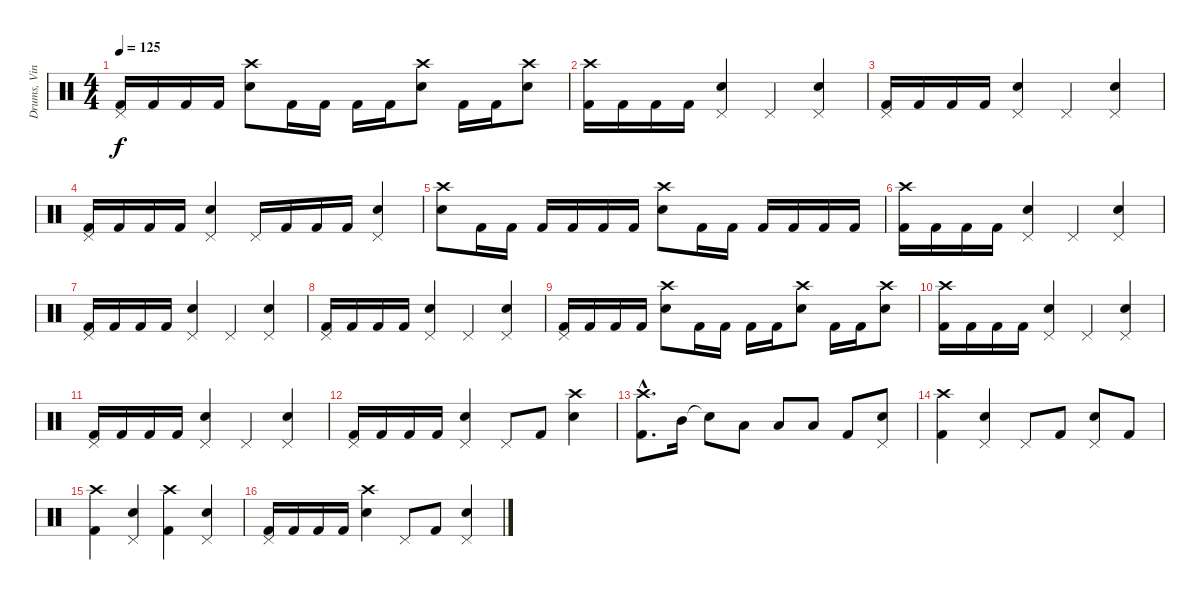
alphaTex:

\track ("Drums, Vinnie" "Drums, Vin") {instrument percussion}
\staff {score}
\articulation defaults
\ts (4 4)
\tempo 125
\clef neutral
\ks c
("Pedal Hi-Hat (hit)" "Kick (hit) 2").16{dy f} "Kick (hit) 2".16 "Kick (hit) 2".16 "Kick (hit) 2".16 ("Crash high (hit)" "Electric Snare (hit)").8 "Kick (hit) 2".16 "Kick (hit) 2".16 "Kick (hit) 2".16 "Kick (hit) 2".16 ("Crash high (hit)" "Electric Snare (hit)").8 "Kick (hit) 2".16 "Kick (hit) 2".16 ("Crash high (hit)" "Electric Snare (hit)").8 |
("Crash high (hit)" "Kick (hit) 2").16 "Kick (hit) 2".16 "Kick (hit) 2".16 "Kick (hit) 2".16 ("Pedal Hi-Hat (hit)" "Electric Snare (hit)").4 "Pedal Hi-Hat (hit)".4 ("Pedal Hi-Hat (hit)" "Electric Snare (hit)").4 |
("Pedal Hi-Hat (hit)" "Kick (hit) 2").16 "Kick (hit) 2".16 "Kick (hit) 2".16 "Kick (hit) 2".16 ("Pedal Hi-Hat (hit)" "Electric Snare (hit)").4 "Pedal Hi-Hat (hit)".4 ("Pedal Hi-Hat (hit)" "Electric Snare (hit)").4 |
("Pedal Hi-Hat (hit)" "Kick (hit) 2").16 "Kick (hit) 2".16 "Kick (hit) 2".16 "Kick (hit) 2".16 ("Pedal Hi-Hat (hit)" "Electric Snare (hit)").4 "Pedal Hi-Hat (hit)".16 "Kick (hit) 2".16 "Kick (hit) 2".16 "Kick (hit) 2".16 ("Pedal Hi-Hat (hit)" "Electric Snare (hit)").4 |
("Crash high (hit)" "Electric Snare (hit)").8 "Kick (hit) 2".16 "Kick (hit) 2".16 "Kick (hit) 2".16 "Kick (hit) 2".16 "Kick (hit) 2".16 "Kick (hit) 2".16 ("Crash high (hit)" "Electric Snare (hit)").8 "Kick (hit) 2".16 "Kick (hit) 2".16 "Kick (hit) 2".16 "Kick (hit) 2".16 "Kick (hit) 2".16 "Kick (hit) 2".16 |
("Crash high (hit)" "Kick (hit) 2").16 "Kick (hit) 2".16 "Kick (hit) 2".16 "Kick (hit) 2".16 ("Pedal Hi-Hat (hit)" "Electric Snare (hit)").4 "Pedal Hi-Hat (hit)".4 ("Pedal Hi-Hat (hit)" "Electric Snare (hit)").4 |
("Pedal Hi-Hat (hit)" "Kick (hit) 2").16 "Kick (hit) 2".16 "Kick (hit) 2".16 "Kick (hit) 2".16 ("Pedal Hi-Hat (hit)" "Electric Snare (hit)").4 "Pedal Hi-Hat (hit)".4 ("Pedal Hi-Hat (hit)" "Electric Snare (hit)").4 |
("Pedal Hi-Hat (hit)" "Kick (hit) 2").16 "Kick (hit) 2".16 "Kick (hit) 2".16 "Kick (hit) 2".16 ("Pedal Hi-Hat (hit)" "Electric Snare (hit)").4 "Pedal Hi-Hat (hit)".4 ("Pedal Hi-Hat (hit)" "Electric Snare (hit)").4 |
("Pedal Hi-Hat (hit)" "Kick (hit) 2").16 "Kick (hit) 2".16 "Kick (hit) 2".16 "Kick (hit) 2".16 ("Crash high (hit)" "Electric Snare (hit)").8 "Kick (hit) 2".16 "Kick (hit) 2".16 "Kick (hit) 2".16 "Kick (hit) 2".16 ("Crash high (hit)" "Electric Snare (hit)").8 "Kick (hit) 2".16 "Kick (hit) 2".16 ("Crash high (hit)" "Electric Snare (hit)").8 |
("Crash high (hit)" "Kick (hit) 2").16 "Kick (hit) 2".16 "Kick (hit) 2".16 "Kick (hit) 2".16 ("Pedal Hi-Hat (hit)" "Electric Snare (hit)").4 "Pedal Hi-Hat (hit)".4 ("Pedal Hi-Hat (hit)" "Electric Snare (hit)").4 |
("Pedal Hi-Hat (hit)" "Kick (hit) 2").16 "Kick (hit) 2".16 "Kick (hit) 2".16 "Kick (hit) 2".16 ("Pedal Hi-Hat (hit)" "Electric Snare (hit)").4 "Pedal Hi-Hat (hit)".4 ("Pedal Hi-Hat (hit)" "Electric Snare (hit)").4 |
("Pedal Hi-Hat (hit)" "Kick (hit) 2").16 "Kick (hit) 2".16 "Kick (hit) 2".16 "Kick (hit) 2".16 ("Pedal Hi-Hat (hit)" "Electric Snare (hit)").4 "Pedal Hi-Hat (hit)".8 "Kick (hit) 2".8 ("Crash high (hit)" "Electric Snare (hit)").4 |
("Crash high (hit)"{hac} "Kick (hit) 2"{hac}).8{d} "Mid Tom (hit)".16 "Snare (hit)"{t}.8 "Low Tom (hit)".8 "Low Tom (hit)".8 "Low Tom (hit)".8 "Kick (hit) 2".8 ("Pedal Hi-Hat (hit)" "Electric Snare (hit)").8 |
("Crash high (hit)" "Kick (hit) 2").4 ("Pedal Hi-Hat (hit)" "Electric Snare (hit)").4 "Pedal Hi-Hat (hit)".8 "Kick (hit) 2".8 ("Pedal Hi-Hat (hit)" "Electric Snare (hit)").8 "Kick (hit) 2".8 |
("Crash high (hit)" "Kick (hit) 2").4 ("Pedal Hi-Hat (hit)" "Electric Snare (hit)").4 ("Crash high (hit)" "Kick (hit) 2").4 ("Pedal Hi-Hat (hit)" "Electric Snare (hit)").4 |
("Pedal Hi-Hat (hit)" "Kick (hit) 2").16 "Kick (hit) 2".16 "Kick (hit) 2".16 "Kick (hit) 2".16 ("Crash high (hit)" "Electric Snare (hit)").4 "Pedal Hi-Hat (hit)".8 "Kick (hit) 2".8 ("Pedal Hi-Hat (hit)" "Electric Snare (hit)").4
